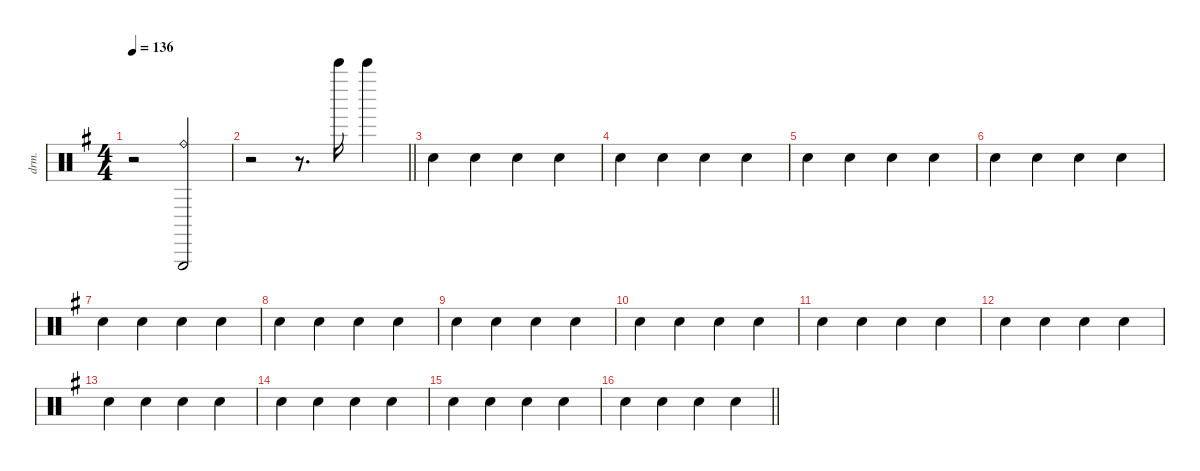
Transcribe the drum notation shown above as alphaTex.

\defaultSystemsLayout 4
\hideDynamics
\bracketExtendMode nobrackets
\otherSystemsTrackNameOrientation horizontal
\track ("Percussions" "drm.") {instrument percussion}
\staff {score}
\articulation defaults
\ts (4 4)
\beaming (8 2 2 2 2)
\tempo 136
\clef neutral
\ks g
r.2{dy f beam Down} ("Triangle (hit)"{acc forcenatural} "Ride (bell)"{acc forcenatural}).2{beam Up} |
\barLineRight lightlight
r.2{beam Down} r.8{d beam Down} "Bell Tree (hit)"{acc forcenatural}.16{beam Down} "Bell Tree (hit)"{acc forcenatural}.4{beam Down} |
"Hand Clap (hit)"{acc forcenatural}.4{beam Down} "Hand Clap (hit)"{acc forcenatural}.4{beam Down} "Hand Clap (hit)"{acc forcenatural}.4{beam Down} "Hand Clap (hit)"{acc forcenatural}.4{beam Down} |
"Hand Clap (hit)"{acc forcenatural}.4{beam Down} "Hand Clap (hit)"{acc forcenatural}.4{beam Down} "Hand Clap (hit)"{acc forcenatural}.4{beam Down} "Hand Clap (hit)"{acc forcenatural}.4{beam Down} |
"Hand Clap (hit)"{acc forcenatural}.4{beam Down} "Hand Clap (hit)"{acc forcenatural}.4{beam Down} "Hand Clap (hit)"{acc forcenatural}.4{beam Down} "Hand Clap (hit)"{acc forcenatural}.4{beam Down} |
"Hand Clap (hit)"{acc forcenatural}.4{beam Down} "Hand Clap (hit)"{acc forcenatural}.4{beam Down} "Hand Clap (hit)"{acc forcenatural}.4{beam Down} "Hand Clap (hit)"{acc forcenatural}.4{beam Down} |
"Hand Clap (hit)"{acc forcenatural}.4{beam Down} "Hand Clap (hit)"{acc forcenatural}.4{beam Down} "Hand Clap (hit)"{acc forcenatural}.4{beam Down} "Hand Clap (hit)"{acc forcenatural}.4{beam Down} |
"Hand Clap (hit)"{acc forcenatural}.4{beam Down} "Hand Clap (hit)"{acc forcenatural}.4{beam Down} "Hand Clap (hit)"{acc forcenatural}.4{beam Down} "Hand Clap (hit)"{acc forcenatural}.4{beam Down} |
"Hand Clap (hit)"{acc forcenatural}.4{beam Down} "Hand Clap (hit)"{acc forcenatural}.4{beam Down} "Hand Clap (hit)"{acc forcenatural}.4{beam Down} "Hand Clap (hit)"{acc forcenatural}.4{beam Down} |
"Hand Clap (hit)"{acc forcenatural}.4{beam Down} "Hand Clap (hit)"{acc forcenatural}.4{beam Down} "Hand Clap (hit)"{acc forcenatural}.4{beam Down} "Hand Clap (hit)"{acc forcenatural}.4{beam Down} |
"Hand Clap (hit)"{acc forcenatural}.4{beam Down} "Hand Clap (hit)"{acc forcenatural}.4{beam Down} "Hand Clap (hit)"{acc forcenatural}.4{beam Down} "Hand Clap (hit)"{acc forcenatural}.4{beam Down} |
"Hand Clap (hit)"{acc forcenatural}.4{beam Down} "Hand Clap (hit)"{acc forcenatural}.4{beam Down} "Hand Clap (hit)"{acc forcenatural}.4{beam Down} "Hand Clap (hit)"{acc forcenatural}.4{beam Down} |
"Hand Clap (hit)"{acc forcenatural}.4{beam Down} "Hand Clap (hit)"{acc forcenatural}.4{beam Down} "Hand Clap (hit)"{acc forcenatural}.4{beam Down} "Hand Clap (hit)"{acc forcenatural}.4{beam Down} |
"Hand Clap (hit)"{acc forcenatural}.4{beam Down} "Hand Clap (hit)"{acc forcenatural}.4{beam Down} "Hand Clap (hit)"{acc forcenatural}.4{beam Down} "Hand Clap (hit)"{acc forcenatural}.4{beam Down} |
"Hand Clap (hit)"{acc forcenatural}.4{beam Down} "Hand Clap (hit)"{acc forcenatural}.4{beam Down} "Hand Clap (hit)"{acc forcenatural}.4{beam Down} "Hand Clap (hit)"{acc forcenatural}.4{beam Down} |
\barLineRight lightlight "Hand Clap (hit)"{acc forcenatural}.4{beam Down} "Hand Clap (hit)"{acc forcenatural}.4{beam Down} "Hand Clap (hit)"{acc forcenatural}.4{beam Down} "Hand Clap (hit)"{acc forcenatural}.4{beam Down}
